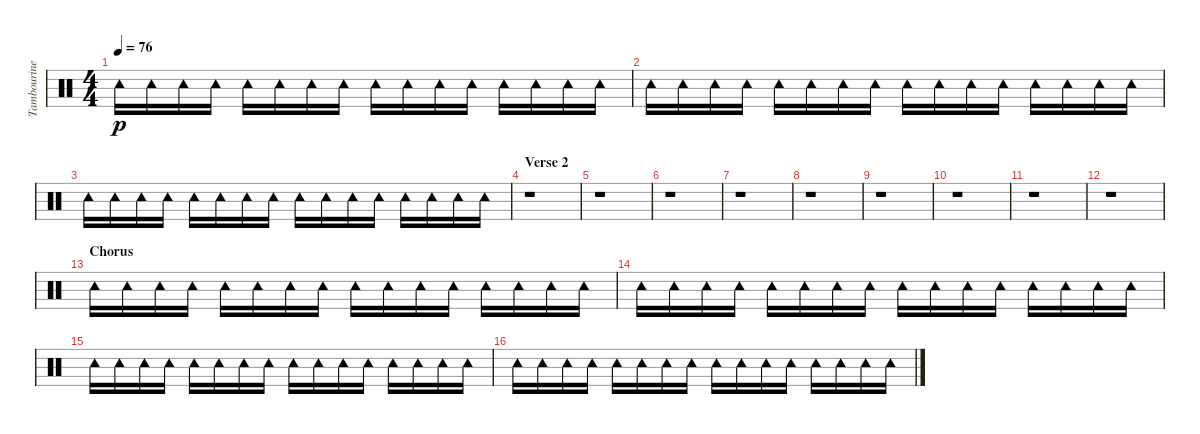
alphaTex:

\track ("Tambourine" "Tambourine") {instrument percussion}
\staff {score}
\articulation defaults
\ts (4 4)
\tempo 76
\clef neutral
\ks c "Tambourine (hit)".16{dy p} "Tambourine (hit)".16 "Tambourine (hit)".16 "Tambourine (hit)".16 "Tambourine (hit)".16 "Tambourine (hit)".16 "Tambourine (hit)".16 "Tambourine (hit)".16 "Tambourine (hit)".16 "Tambourine (hit)".16 "Tambourine (hit)".16 "Tambourine (hit)".16 "Tambourine (hit)".16 "Tambourine (hit)".16 "Tambourine (hit)".16 "Tambourine (hit)".16
|
"Tambourine (hit)".16 "Tambourine (hit)".16 "Tambourine (hit)".16 "Tambourine (hit)".16 "Tambourine (hit)".16 "Tambourine (hit)".16 "Tambourine (hit)".16 "Tambourine (hit)".16 "Tambourine (hit)".16 "Tambourine (hit)".16 "Tambourine (hit)".16 "Tambourine (hit)".16 "Tambourine (hit)".16 "Tambourine (hit)".16 "Tambourine (hit)".16 "Tambourine (hit)".16 |
"Tambourine (hit)".16 "Tambourine (hit)".16 "Tambourine (hit)".16 "Tambourine (hit)".16 "Tambourine (hit)".16 "Tambourine (hit)".16 "Tambourine (hit)".16 "Tambourine (hit)".16 "Tambourine (hit)".16 "Tambourine (hit)".16 "Tambourine (hit)".16 "Tambourine (hit)".16 "Tambourine (hit)".16 "Tambourine (hit)".16 "Tambourine (hit)".16 "Tambourine (hit)".16 |
\section ("" "Verse 2")
r.1 |
r.1 |
r.1 |
r.1 |
r.1 |
r.1 |
r.1 |
r.1 |
r.1 |
\section ("" "Chorus")
"Tambourine (hit)".16 "Tambourine (hit)".16 "Tambourine (hit)".16 "Tambourine (hit)".16 "Tambourine (hit)".16 "Tambourine (hit)".16 "Tambourine (hit)".16 "Tambourine (hit)".16 "Tambourine (hit)".16 "Tambourine (hit)".16 "Tambourine (hit)".16 "Tambourine (hit)".16 "Tambourine (hit)".16 "Tambourine (hit)".16 "Tambourine (hit)".16 "Tambourine (hit)".16 |
"Tambourine (hit)".16 "Tambourine (hit)".16 "Tambourine (hit)".16 "Tambourine (hit)".16 "Tambourine (hit)".16 "Tambourine (hit)".16 "Tambourine (hit)".16 "Tambourine (hit)".16 "Tambourine (hit)".16 "Tambourine (hit)".16 "Tambourine (hit)".16 "Tambourine (hit)".16 "Tambourine (hit)".16 "Tambourine (hit)".16 "Tambourine (hit)".16 "Tambourine (hit)".16 |
"Tambourine (hit)".16 "Tambourine (hit)".16 "Tambourine (hit)".16 "Tambourine (hit)".16 "Tambourine (hit)".16 "Tambourine (hit)".16 "Tambourine (hit)".16 "Tambourine (hit)".16 "Tambourine (hit)".16 "Tambourine (hit)".16 "Tambourine (hit)".16 "Tambourine (hit)".16 "Tambourine (hit)".16 "Tambourine (hit)".16 "Tambourine (hit)".16 "Tambourine (hit)".16 |
"Tambourine (hit)".16 "Tambourine (hit)".16 "Tambourine (hit)".16 "Tambourine (hit)".16 "Tambourine (hit)".16 "Tambourine (hit)".16 "Tambourine (hit)".16 "Tambourine (hit)".16 "Tambourine (hit)".16 "Tambourine (hit)".16 "Tambourine (hit)".16 "Tambourine (hit)".16 "Tambourine (hit)".16 "Tambourine (hit)".16 "Tambourine (hit)".16 "Tambourine (hit)".16
